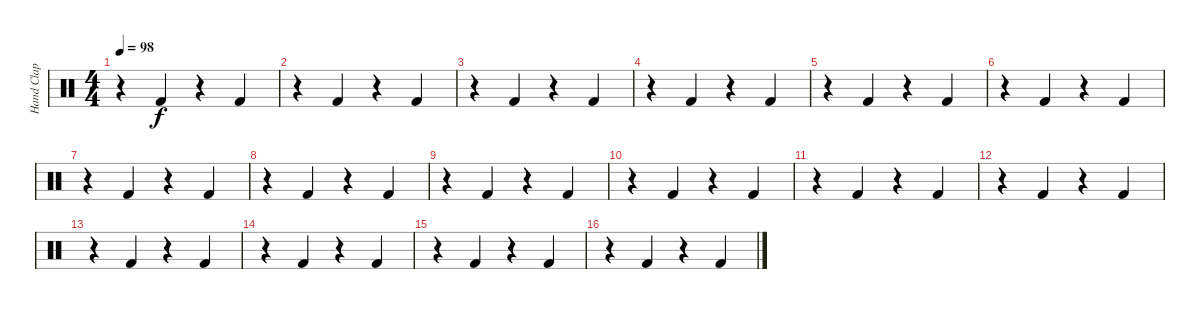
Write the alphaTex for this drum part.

\track ("Hand Clap" "Hand Clap") {instrument percussion}
\staff {score}
\articulation defaults
\ts (4 4)
\tempo 98
\clef neutral
\ks c
r.4{dy f} "Kick (hit) 2".4 r.4 "Kick (hit) 2".4 |
r.4 "Kick (hit) 2".4 r.4 "Kick (hit) 2".4 |
r.4 "Kick (hit) 2".4 r.4 "Kick (hit) 2".4 |
r.4 "Kick (hit) 2".4 r.4 "Kick (hit) 2".4 |
r.4 "Kick (hit) 2".4 r.4 "Kick (hit) 2".4 |
r.4 "Kick (hit) 2".4 r.4 "Kick (hit) 2".4 |
r.4 "Kick (hit) 2".4 r.4 "Kick (hit) 2".4 |
r.4 "Kick (hit) 2".4 r.4 "Kick (hit) 2".4 |
r.4 "Kick (hit) 2".4 r.4 "Kick (hit) 2".4 |
r.4 "Kick (hit) 2".4 r.4 "Kick (hit) 2".4 |
r.4 "Kick (hit) 2".4 r.4 "Kick (hit) 2".4 |
r.4 "Kick (hit) 2".4 r.4 "Kick (hit) 2".4 |
r.4 "Kick (hit) 2".4 r.4 "Kick (hit) 2".4 |
r.4 "Kick (hit) 2".4 r.4 "Kick (hit) 2".4 |
r.4 "Kick (hit) 2".4 r.4 "Kick (hit) 2".4 |
r.4 "Kick (hit) 2".4 r.4 "Kick (hit) 2".4
